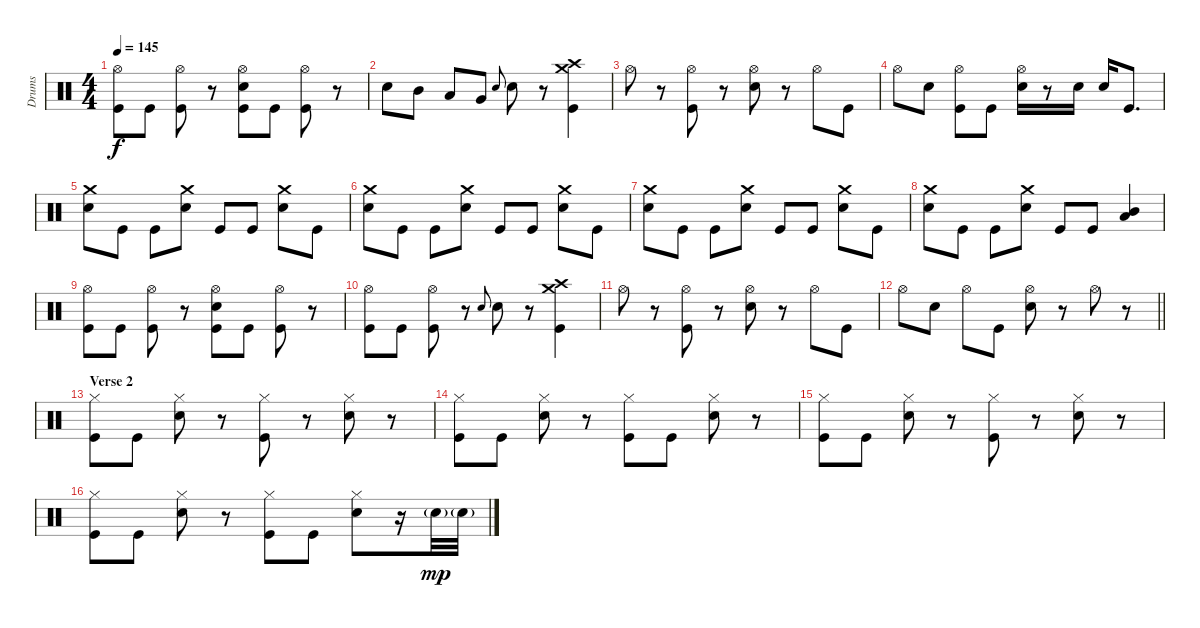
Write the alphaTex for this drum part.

\track ("Drums" "Drums") {instrument percussion}
\staff {score}
\articulation defaults
\ts (4 4)
\tempo 145
\clef neutral
\ks c
("Hi-Hat (open)" "Kick (hit)").8{dy f} "Kick (hit)".8 ("Hi-Hat (open)" "Kick (hit)").8 r.8 ("Hi-Hat (open)" "Snare (hit) 2" "Kick (hit)").8 "Kick (hit)".8 ("Hi-Hat (open)" "Kick (hit)").8 r.8 |
"Snare (hit) 2".8 "Mid Tom (hit)".8 "Low Tom (hit)".8 "Very Low Tom (hit)".8 "Snare (hit) 2".8{gr onbeat} "Snare (hit) 2".8 r.8 ("Crash medium (hit)" "Crash high (hit)" "Kick (hit)").4 |
"Hi-Hat (open)".8 r.8 ("Hi-Hat (open)" "Kick (hit)").8 r.8 ("Hi-Hat (open)" "Snare (hit) 2").8 r.8 "Hi-Hat (open)".8 "Kick (hit)".8 |
"Hi-Hat (open)".8 "Snare (hit) 2".8 ("Hi-Hat (open)" "Kick (hit)").8 "Kick (hit)".8 ("Hi-Hat (open)" "Snare (hit) 2").16 r.8 "Snare (hit) 2".16 "Snare (hit) 2".16 "Kick (hit)".8{d} |
("Crash medium (hit)" "Snare (hit) 2").8 "Kick (hit)".8 "Kick (hit)".8 ("Crash medium (hit)" "Snare (hit) 2").8 "Kick (hit)".8 "Kick (hit)".8 ("Crash medium (hit)" "Snare (hit) 2").8 "Kick (hit)".8 |
("Crash medium (hit)" "Snare (hit) 2").8 "Kick (hit)".8 "Kick (hit)".8 ("Crash medium (hit)" "Snare (hit) 2").8 "Kick (hit)".8 "Kick (hit)".8 ("Crash medium (hit)" "Snare (hit) 2").8 "Kick (hit)".8 |
("Crash medium (hit)" "Snare (hit) 2").8 "Kick (hit)".8 "Kick (hit)".8 ("Crash medium (hit)" "Snare (hit) 2").8 "Kick (hit)".8 "Kick (hit)".8 ("Crash medium (hit)" "Snare (hit) 2").8 "Kick (hit)".8 |
("Crash medium (hit)" "Snare (hit) 2").8 "Kick (hit)".8 "Kick (hit)".8 ("Crash medium (hit)" "Snare (hit) 2").8 "Kick (hit)".8 "Kick (hit)".8 ("Mid Tom (hit)" "Low Tom (hit)").4 |
("Hi-Hat (open)" "Kick (hit)").8 "Kick (hit)".8 ("Hi-Hat (open)" "Kick (hit)").8 r.8 ("Hi-Hat (open)" "Snare (hit) 2" "Kick (hit)").8 "Kick (hit)".8 ("Hi-Hat (open)" "Kick (hit)").8 r.8 |
("Hi-Hat (open)" "Kick (hit)").8 "Kick (hit)".8 ("Hi-Hat (open)" "Kick (hit)").8 r.8 "Snare (hit) 2".8{gr onbeat} "Snare (hit) 2".8 r.8 ("Crash medium (hit)" "Crash high (hit)" "Kick (hit)").4 |
"Hi-Hat (open)".8 r.8 ("Hi-Hat (open)" "Kick (hit)").8 r.8 ("Hi-Hat (open)" "Snare (hit) 2").8 r.8 "Hi-Hat (open)".8 "Kick (hit)".8 |
\barLineRight lightlight "Hi-Hat (open)".8 "Snare (hit) 2".8 "Hi-Hat (open)".8 "Kick (hit)".8
("Hi-Hat (open)" "Snare (hit) 2").8 r.8 "Hi-Hat (open)".8 r.8 |
\section ("" "Verse 2")
("Hi-Hat (closed)" "Kick (hit)").8 "Kick (hit)".8 ("Hi-Hat (closed)" "Snare (hit) 2").8 r.8 ("Hi-Hat (closed)" "Kick (hit)").8 r.8 ("Hi-Hat (closed)" "Snare (hit) 2").8 r.8 |
("Hi-Hat (closed)" "Kick (hit)").8 "Kick (hit)".8 ("Hi-Hat (closed)" "Snare (hit) 2").8 r.8 ("Hi-Hat (closed)" "Kick (hit)").8 "Kick (hit)".8 ("Hi-Hat (closed)" "Snare (hit) 2").8 r.8 |
("Hi-Hat (closed)" "Kick (hit)").8 "Kick (hit)".8 ("Hi-Hat (closed)" "Snare (hit) 2").8 r.8 ("Hi-Hat (closed)" "Kick (hit)").8 r.8 ("Hi-Hat (closed)" "Snare (hit) 2").8 r.8 |
("Hi-Hat (closed)" "Kick (hit)").8 "Kick (hit)".8 ("Hi-Hat (closed)" "Snare (hit) 2").8 r.8 ("Hi-Hat (closed)" "Kick (hit)").8 "Kick (hit)".8 ("Hi-Hat (closed)" "Snare (hit) 2").8 r.16 "Snare (hit) 2"{g}.32{dy mp} "Snare (hit) 2"{g}.32
